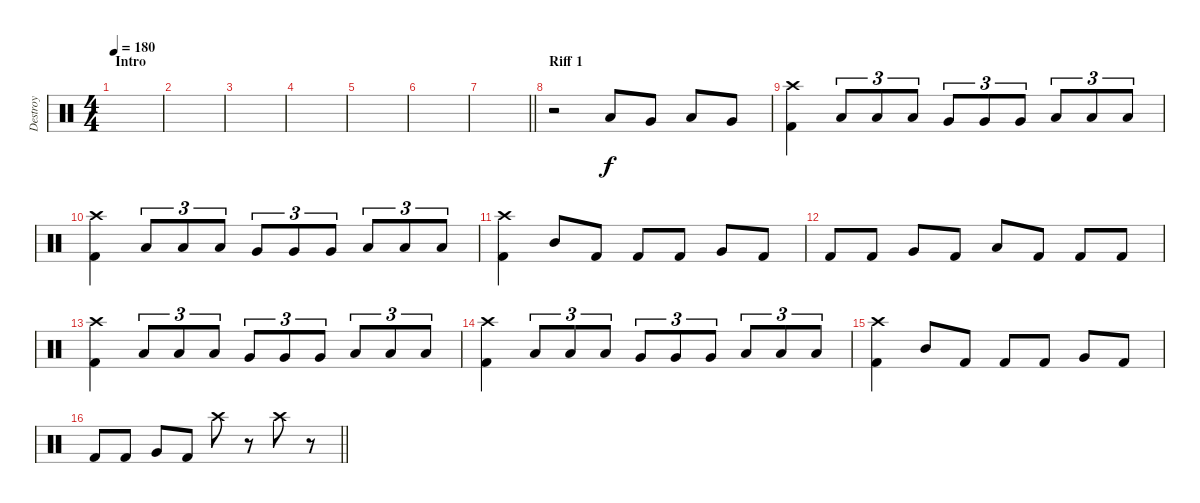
\track ("Destroy" "Destroy") {instrument percussion}
\staff {score}
\articulation defaults
\ts (4 4)
\section ("" "Intro")
\tempo 180
\clef neutral
\ks c
|
|
|
|
|
|
\barLineRight lightlight
|
\section ("" "Riff 1")
r.2 "Low Tom (hit)".8 "Very Low Tom (hit)".8 "Low Floor Tom (hit)".8 "Very Low Tom (hit)".8 |
("Crash high (hit)" "Kick (hit) 2").4 "Low Tom (hit)".8{tu (3 2)} "Low Tom (hit)".8{tu (3 2)} "Low Tom (hit)".8{tu (3 2)} "Very Low Tom (hit)".8{tu (3 2)} "Very Low Tom (hit)".8{tu (3 2)} "Very Low Tom (hit)".8{tu (3 2)} "Low Floor Tom (hit)".8{tu (3 2)} "Low Floor Tom (hit)".8{tu (3 2)} "Low Floor Tom (hit)".8{tu (3 2)} |
("Crash high (hit)" "Kick (hit) 2").4 "Low Tom (hit)".8{tu (3 2)} "Low Tom (hit)".8{tu (3 2)} "Low Tom (hit)".8{tu (3 2)} "Very Low Tom (hit)".8{tu (3 2)} "Very Low Tom (hit)".8{tu (3 2)} "Very Low Tom (hit)".8{tu (3 2)} "Low Floor Tom (hit)".8{tu (3 2)} "Low Floor Tom (hit)".8{tu (3 2)} "Low Floor Tom (hit)".8{tu (3 2)} |
("Crash high (hit)" "Kick (hit) 2").4 "Mid Tom (hit)".8 "Kick (hit) 2".8 "Kick (hit) 2".8 "Kick (hit) 2".8 "Very Low Tom (hit)".8 "Kick (hit) 2".8 |
"Kick (hit) 2".8 "Kick (hit) 2".8 "Very Low Tom (hit)".8 "Kick (hit) 2".8 "Low Floor Tom (hit)".8 "Kick (hit) 2".8 "Kick (hit) 2".8 "Kick (hit) 2".8 |
("Crash high (hit)" "Kick (hit) 2").4 "Low Tom (hit)".8{tu (3 2)} "Low Tom (hit)".8{tu (3 2)} "Low Tom (hit)".8{tu (3 2)} "Very Low Tom (hit)".8{tu (3 2)} "Very Low Tom (hit)".8{tu (3 2)} "Very Low Tom (hit)".8{tu (3 2)} "Low Floor Tom (hit)".8{tu (3 2)} "Low Floor Tom (hit)".8{tu (3 2)} "Low Floor Tom (hit)".8{tu (3 2)} |
("Crash high (hit)" "Kick (hit) 2").4 "Low Tom (hit)".8{tu (3 2)} "Low Tom (hit)".8{tu (3 2)} "Low Tom (hit)".8{tu (3 2)} "Very Low Tom (hit)".8{tu (3 2)} "Very Low Tom (hit)".8{tu (3 2)} "Very Low Tom (hit)".8{tu (3 2)} "Low Floor Tom (hit)".8{tu (3 2)} "Low Floor Tom (hit)".8{tu (3 2)} "Low Floor Tom (hit)".8{tu (3 2)} |
("Crash high (hit)" "Kick (hit) 2").4 "Mid Tom (hit)".8 "Kick (hit) 2".8 "Kick (hit) 2".8 "Kick (hit) 2".8 "Very Low Tom (hit)".8 "Kick (hit) 2".8 |
\barLineRight lightlight "Kick (hit) 2".8 "Kick (hit) 2".8 "Very Low Tom (hit)".8 "Kick (hit) 2".8 "Crash high (hit)".8
r.8 "Crash high (hit)".8 r.8
